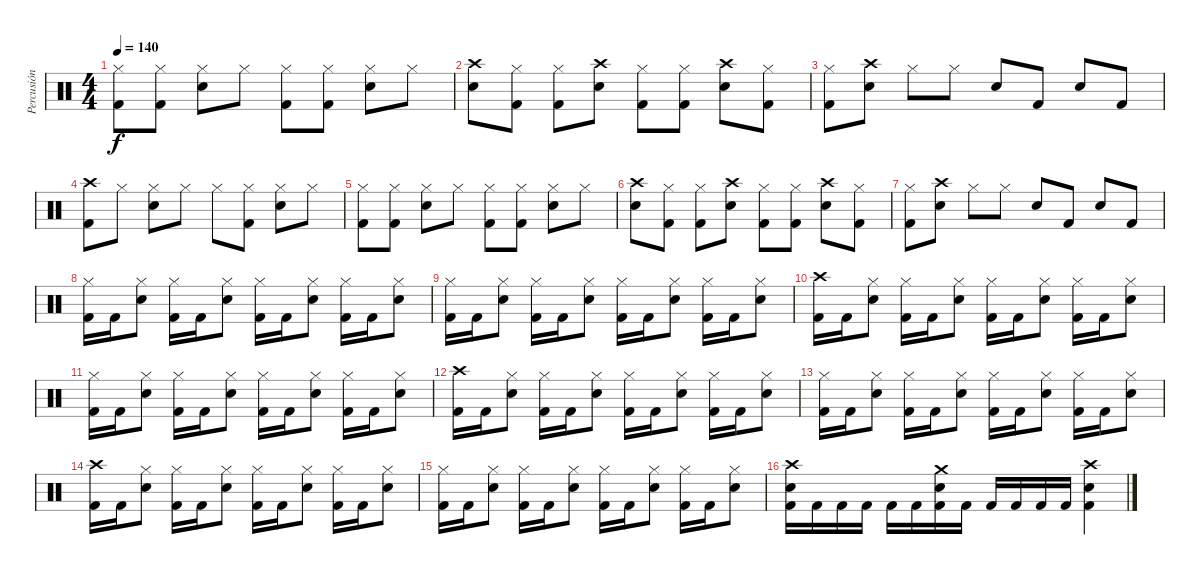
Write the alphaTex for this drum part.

\track ("Percusión" "Percusión") {instrument percussion}
\staff {score}
\articulation defaults
\ts (4 4)
\tempo 140
\clef neutral
\ks c
("Hi-Hat (closed)" "Kick (hit) 2").8{dy f} ("Hi-Hat (closed)" "Kick (hit) 2").8 ("Hi-Hat (closed)" "Snare (hit) 2").8 "Hi-Hat (closed)".8 ("Hi-Hat (closed)" "Kick (hit) 2").8 ("Hi-Hat (closed)" "Kick (hit) 2").8 ("Hi-Hat (closed)" "Snare (hit) 2").8 "Hi-Hat (closed)".8 |
("Crash high (hit)" "Snare (hit) 2").8 ("Hi-Hat (closed)" "Kick (hit) 2").8 ("Hi-Hat (closed)" "Kick (hit) 2").8 ("Crash high (hit)" "Snare (hit) 2").8 ("Hi-Hat (closed)" "Kick (hit) 2").8 ("Hi-Hat (closed)" "Kick (hit) 2").8 ("Crash high (hit)" "Snare (hit) 2").8 ("Hi-Hat (closed)" "Kick (hit) 2").8 |
("Hi-Hat (closed)" "Kick (hit) 2").8 ("Crash high (hit)" "Snare (hit) 2").8 "Hi-Hat (closed)".8 "Hi-Hat (closed)".8 "Snare (hit) 2".8 "Kick (hit) 2".8 "Snare (hit) 2".8 "Kick (hit) 2".8 |
("Crash high (hit)" "Kick (hit) 2").8 "Hi-Hat (closed)".8 ("Hi-Hat (closed)" "Snare (hit) 2").8 "Hi-Hat (closed)".8 "Hi-Hat (closed)".8 ("Hi-Hat (closed)" "Kick (hit) 2").8 ("Hi-Hat (closed)" "Snare (hit) 2").8 "Hi-Hat (closed)".8 |
("Hi-Hat (closed)" "Kick (hit) 2").8 ("Hi-Hat (closed)" "Kick (hit) 2").8 ("Hi-Hat (closed)" "Snare (hit) 2").8 "Hi-Hat (closed)".8 ("Hi-Hat (closed)" "Kick (hit) 2").8 ("Hi-Hat (closed)" "Kick (hit) 2").8 ("Hi-Hat (closed)" "Snare (hit) 2").8 "Hi-Hat (closed)".8 |
("Crash high (hit)" "Snare (hit) 2").8 ("Hi-Hat (closed)" "Kick (hit) 2").8 ("Hi-Hat (closed)" "Kick (hit) 2").8 ("Crash high (hit)" "Snare (hit) 2").8 ("Hi-Hat (closed)" "Kick (hit) 2").8 ("Hi-Hat (closed)" "Kick (hit) 2").8 ("Crash high (hit)" "Snare (hit) 2").8 ("Hi-Hat (closed)" "Kick (hit) 2").8 |
("Hi-Hat (closed)" "Kick (hit) 2").8 ("Crash high (hit)" "Snare (hit) 2").8 "Hi-Hat (closed)".8 "Hi-Hat (closed)".8 "Snare (hit) 2".8 "Kick (hit) 2".8 "Snare (hit) 2".8 "Kick (hit) 2".8 |
("Hi-Hat (closed)" "Kick (hit) 2").16 "Kick (hit) 2".16 ("Hi-Hat (closed)" "Snare (hit) 2").8 ("Hi-Hat (closed)" "Kick (hit) 2").16 "Kick (hit) 2".16 ("Hi-Hat (closed)" "Snare (hit) 2").8 ("Hi-Hat (closed)" "Kick (hit) 2").16 "Kick (hit) 2".16 ("Hi-Hat (closed)" "Snare (hit) 2").8 ("Hi-Hat (closed)" "Kick (hit) 2").16 "Kick (hit) 2".16 ("Hi-Hat (closed)" "Snare (hit) 2").8 |
("Hi-Hat (closed)" "Kick (hit) 2").16 "Kick (hit) 2".16 ("Hi-Hat (closed)" "Snare (hit) 2").8 ("Hi-Hat (closed)" "Kick (hit) 2").16 "Kick (hit) 2".16 ("Hi-Hat (closed)" "Snare (hit) 2").8 ("Hi-Hat (closed)" "Kick (hit) 2").16 "Kick (hit) 2".16 ("Hi-Hat (closed)" "Snare (hit) 2").8 ("Hi-Hat (closed)" "Kick (hit) 2").16 "Kick (hit) 2".16 ("Hi-Hat (closed)" "Snare (hit) 2").8 |
("Crash high (hit)" "Kick (hit) 2").16 "Kick (hit) 2".16 ("Hi-Hat (closed)" "Snare (hit) 2").8 ("Hi-Hat (closed)" "Kick (hit) 2").16 "Kick (hit) 2".16 ("Hi-Hat (closed)" "Snare (hit) 2").8 ("Hi-Hat (closed)" "Kick (hit) 2").16 "Kick (hit) 2".16 ("Hi-Hat (closed)" "Snare (hit) 2").8 ("Hi-Hat (closed)" "Kick (hit) 2").16 "Kick (hit) 2".16 ("Hi-Hat (closed)" "Snare (hit) 2").8 |
("Hi-Hat (closed)" "Kick (hit) 2").16 "Kick (hit) 2".16 ("Hi-Hat (closed)" "Snare (hit) 2").8 ("Hi-Hat (closed)" "Kick (hit) 2").16 "Kick (hit) 2".16 ("Hi-Hat (closed)" "Snare (hit) 2").8 ("Hi-Hat (closed)" "Kick (hit) 2").16 "Kick (hit) 2".16 ("Hi-Hat (closed)" "Snare (hit) 2").8 ("Hi-Hat (closed)" "Kick (hit) 2").16 "Kick (hit) 2".16 ("Hi-Hat (closed)" "Snare (hit) 2").8 |
("Crash high (hit)" "Kick (hit) 2").16 "Kick (hit) 2".16 ("Hi-Hat (closed)" "Snare (hit) 2").8 ("Hi-Hat (closed)" "Kick (hit) 2").16 "Kick (hit) 2".16 ("Hi-Hat (closed)" "Snare (hit) 2").8 ("Hi-Hat (closed)" "Kick (hit) 2").16 "Kick (hit) 2".16 ("Hi-Hat (closed)" "Snare (hit) 2").8 ("Hi-Hat (closed)" "Kick (hit) 2").16 "Kick (hit) 2".16 ("Hi-Hat (closed)" "Snare (hit) 2").8 |
("Hi-Hat (closed)" "Kick (hit) 2").16 "Kick (hit) 2".16 ("Hi-Hat (closed)" "Snare (hit) 2").8 ("Hi-Hat (closed)" "Kick (hit) 2").16 "Kick (hit) 2".16 ("Hi-Hat (closed)" "Snare (hit) 2").8 ("Hi-Hat (closed)" "Kick (hit) 2").16 "Kick (hit) 2".16 ("Hi-Hat (closed)" "Snare (hit) 2").8 ("Hi-Hat (closed)" "Kick (hit) 2").16 "Kick (hit) 2".16 ("Hi-Hat (closed)" "Snare (hit) 2").8 |
("Crash high (hit)" "Kick (hit) 2").16 "Kick (hit) 2".16 ("Hi-Hat (closed)" "Snare (hit) 2").8 ("Hi-Hat (closed)" "Kick (hit) 2").16 "Kick (hit) 2".16 ("Hi-Hat (closed)" "Snare (hit) 2").8 ("Hi-Hat (closed)" "Kick (hit) 2").16 "Kick (hit) 2".16 ("Hi-Hat (closed)" "Snare (hit) 2").8 ("Hi-Hat (closed)" "Kick (hit) 2").16 "Kick (hit) 2".16 ("Hi-Hat (closed)" "Snare (hit) 2").8 |
("Hi-Hat (closed)" "Kick (hit) 2").16 "Kick (hit) 2".16 ("Hi-Hat (closed)" "Snare (hit) 2").8 ("Hi-Hat (closed)" "Kick (hit) 2").16 "Kick (hit) 2".16 ("Hi-Hat (closed)" "Snare (hit) 2").8 ("Hi-Hat (closed)" "Kick (hit) 2").16 "Kick (hit) 2".16 ("Hi-Hat (closed)" "Snare (hit) 2").8 ("Hi-Hat (closed)" "Kick (hit) 2").16 "Kick (hit) 2".16 ("Hi-Hat (closed)" "Snare (hit) 2").8 |
("Crash high (hit)" "Snare (hit) 2" "Kick (hit) 2").16 "Kick (hit) 2".16 "Kick (hit) 2".16 "Kick (hit) 2".16 "Kick (hit) 2".16 "Kick (hit) 2".16 ("Crash medium (hit)" "Snare (hit) 2" "Kick (hit) 2").16 "Kick (hit) 2".16 "Kick (hit) 2".16 "Kick (hit) 2".16 "Kick (hit) 2".16 "Kick (hit) 2".16 ("Crash high (hit)" "Snare (hit) 2" "Kick (hit) 2").4
